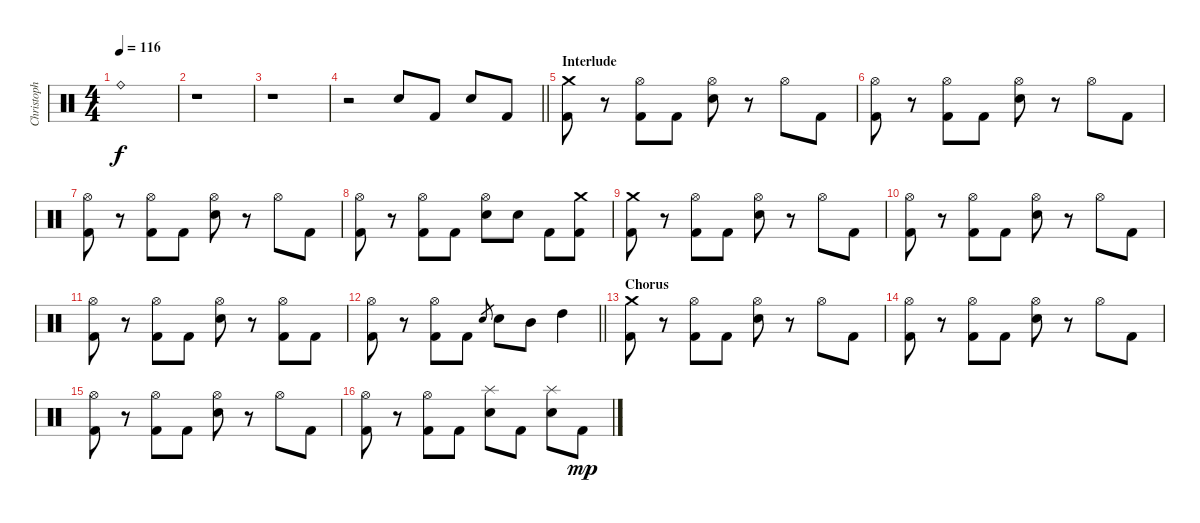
\track ("Christoph Schneider" "Christoph ") {instrument percussion}
\staff {score}
\articulation defaults
\ts (4 4)
\tempo 116
\clef neutral
\ks c "Ride (bell)".1{dy f}
|
r.1 |
r.1 |
\barLineRight lightlight
r.2 "Snare (hit) 2".8 "Kick (hit) 2".8 "Snare (hit) 2".8 "Kick (hit) 2".8 |
\section ("" "Interlude")
("Crash medium (hit)" "Kick (hit) 2").8 r.8 ("Hi-Hat (open)" "Kick (hit) 2").8 "Kick (hit) 2".8 ("Hi-Hat (open)" "Snare (hit) 2").8 r.8 "Hi-Hat (open)".8 "Kick (hit) 2".8 |
("Hi-Hat (open)" "Kick (hit) 2").8 r.8 ("Hi-Hat (open)" "Kick (hit) 2").8 "Kick (hit) 2".8 ("Hi-Hat (open)" "Snare (hit) 2").8 r.8 "Hi-Hat (open)".8 "Kick (hit) 2".8 |
("Hi-Hat (open)" "Kick (hit) 2").8 r.8 ("Hi-Hat (open)" "Kick (hit) 2").8 "Kick (hit) 2".8 ("Hi-Hat (open)" "Snare (hit) 2").8 r.8 "Hi-Hat (open)".8 "Kick (hit) 2".8 |
("Hi-Hat (open)" "Kick (hit) 2").8 r.8 ("Hi-Hat (open)" "Kick (hit) 2").8 "Kick (hit) 2".8 ("Hi-Hat (open)" "Snare (hit) 2").8 "Snare (hit) 2".8 "Kick (hit) 2".8 ("Crash medium (hit)" "Kick (hit) 2").8 |
("Crash medium (hit)" "Kick (hit) 2").8 r.8 ("Hi-Hat (open)" "Kick (hit) 2").8 "Kick (hit) 2".8 ("Hi-Hat (open)" "Snare (hit) 2").8 r.8 "Hi-Hat (open)".8 "Kick (hit) 2".8 |
("Hi-Hat (open)" "Kick (hit) 2").8 r.8 ("Hi-Hat (open)" "Kick (hit) 2").8 "Kick (hit) 2".8 ("Hi-Hat (open)" "Snare (hit) 2").8 r.8 "Hi-Hat (open)".8 "Kick (hit) 2".8 |
("Hi-Hat (open)" "Kick (hit) 2").8 r.8 ("Hi-Hat (open)" "Kick (hit) 2").8 "Kick (hit) 2".8 ("Hi-Hat (open)" "Snare (hit) 2").8 r.8 ("Hi-Hat (open)" "Kick (hit) 2").8 "Kick (hit) 2".8 |
\barLineRight lightlight
("Hi-Hat (open)" "Kick (hit) 2").8 r.8 ("Hi-Hat (open)" "Kick (hit) 2").8 "Kick (hit) 2".8 "Snare (hit) 2".8{gr} "Snare (hit) 2".8 "Mid Tom (hit)".8 "High Tom (hit)".4 |
\section ("" "Chorus")
("Crash medium (hit)" "Kick (hit) 2").8 r.8 ("Hi-Hat (open)" "Kick (hit) 2").8 "Kick (hit) 2".8 ("Hi-Hat (open)" "Snare (hit) 2").8 r.8 "Hi-Hat (open)".8 "Kick (hit) 2".8 |
("Hi-Hat (open)" "Kick (hit) 2").8 r.8 ("Hi-Hat (open)" "Kick (hit) 2").8 "Kick (hit) 2".8 ("Hi-Hat (open)" "Snare (hit) 2").8 r.8 "Hi-Hat (open)".8 "Kick (hit) 2".8 |
("Hi-Hat (open)" "Kick (hit) 2").8 r.8 ("Hi-Hat (open)" "Kick (hit) 2").8 "Kick (hit) 2".8 ("Hi-Hat (open)" "Snare (hit) 2").8 r.8 "Hi-Hat (open)".8 "Kick (hit) 2".8 |
("Hi-Hat (open)" "Kick (hit) 2").8 r.8 ("Hi-Hat (open)" "Kick (hit) 2").8 "Kick (hit) 2".8 ("Splash (hit)" "Snare (hit) 2").8 "Kick (hit) 2".8 ("Splash (hit)" "Snare (hit) 2").8 "Kick (hit) 2".8{dy mp}
